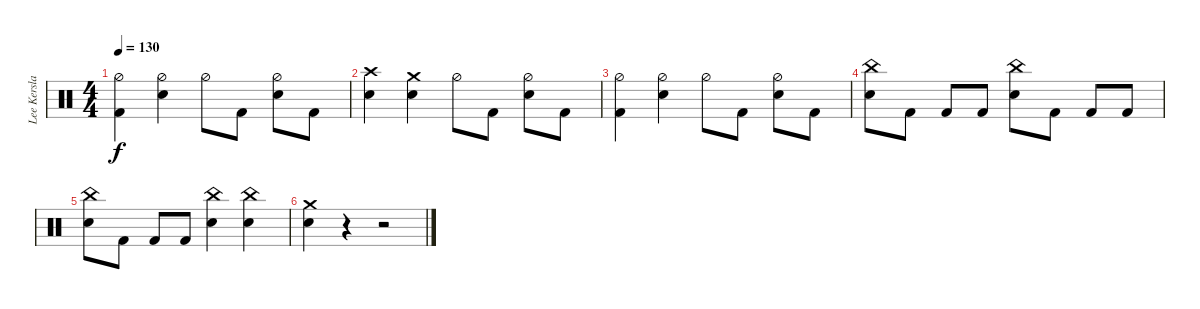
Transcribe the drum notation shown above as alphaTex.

\track ("Lee Kerslake" "Lee Kersla") {instrument percussion}
\staff {score}
\articulation defaults
\ts (4 4)
\tempo 130
\clef neutral
\ks c
("Kick (hit) 2" "Hi-Hat (half)").4{dy f} ("Snare (hit) 2" "Hi-Hat (half)").4 "Hi-Hat (half)".8 "Kick (hit) 2".8 ("Snare (hit) 2" "Hi-Hat (half)").8 "Kick (hit) 2".8 |
("Snare (hit) 2" "Crash high (hit)").4 ("Snare (hit) 2" "Crash medium (hit)").4 "Hi-Hat (half)".8 "Kick (hit) 2".8 ("Snare (hit) 2" "Hi-Hat (half)").8 "Kick (hit) 2".8 |
("Kick (hit) 2" "Hi-Hat (half)").4 ("Snare (hit) 2" "Hi-Hat (half)").4 "Hi-Hat (half)".8 "Kick (hit) 2".8 ("Snare (hit) 2" "Hi-Hat (half)").8 "Kick (hit) 2".8 |
("Snare (hit) 2" "China (hit)").8 "Kick (hit) 2".8 "Kick (hit) 2".8 "Kick (hit) 2".8 ("Snare (hit) 2" "China (hit)").8 "Kick (hit) 2".8 "Kick (hit) 2".8 "Kick (hit) 2".8 |
("Snare (hit) 2" "China (hit)").8 "Kick (hit) 2".8 "Kick (hit) 2".8 "Kick (hit) 2".8 ("Snare (hit) 2" "China (hit)").4 ("Snare (hit) 2" "China (hit)").4 |
("Snare (hit) 2" "Crash medium (hit)").4 r.4 r.2
